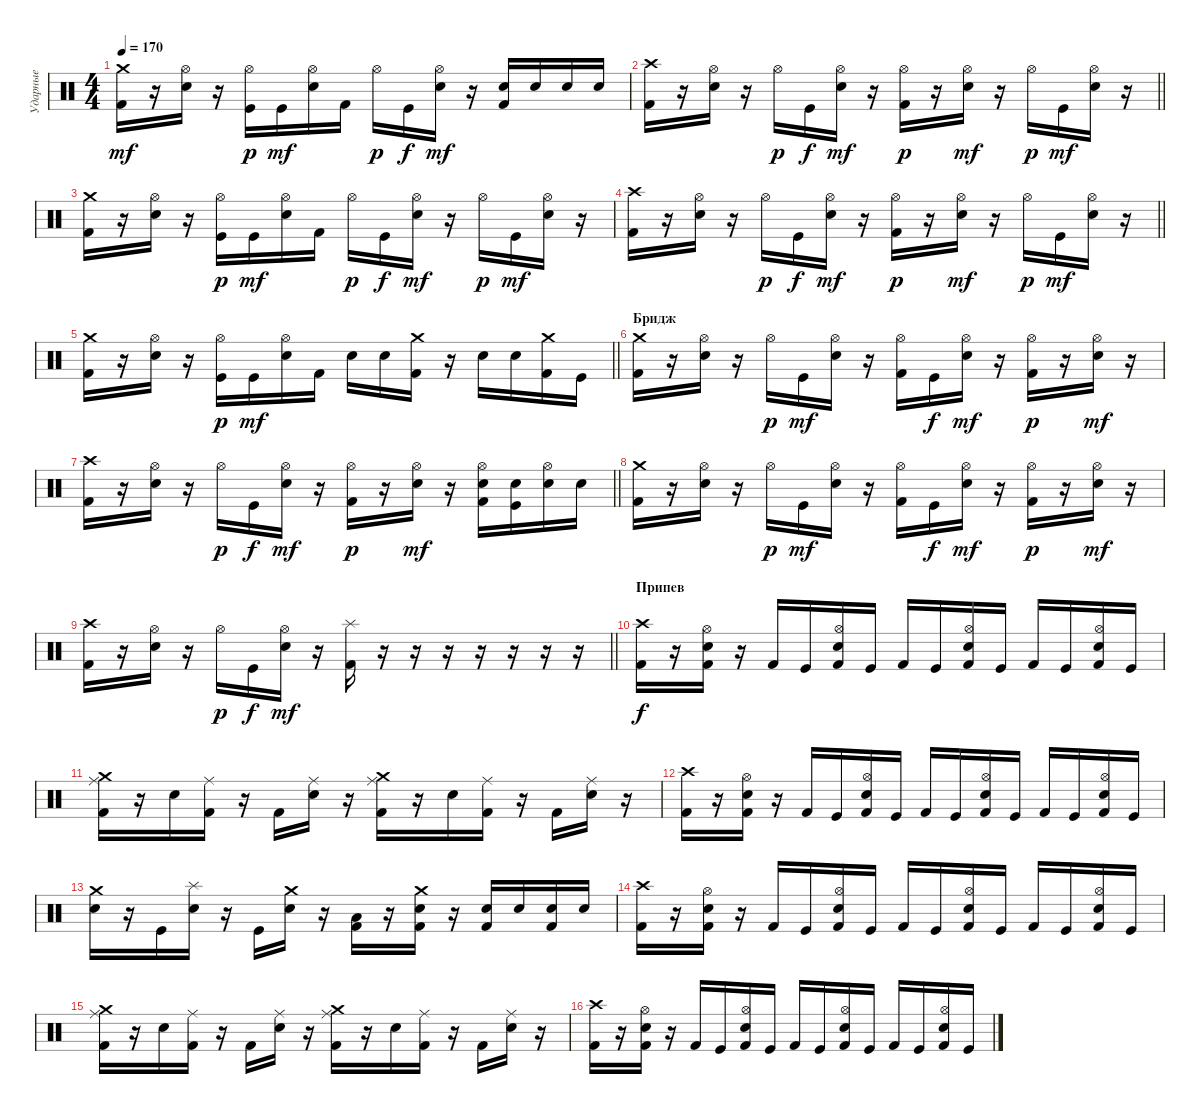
\track ("Ударные" "Ударные") {instrument percussion}
\staff {score}
\articulation defaults
\ts (4 4)
\tempo 170
\clef neutral
\ks c
("Crash medium (hit)" "Kick (hit) 2").16{dy mf} r.16 ("Hi-Hat (open)" "Electric Snare (hit)").16 r.16 ("Hi-Hat (open)" "Kick (hit)").16{dy p} "Kick (hit)".16{dy mf} ("Hi-Hat (open)" "Electric Snare (hit)").16 "Kick (hit) 2".16 "Hi-Hat (open)".16{dy p} "Kick (hit)".16{dy f} ("Hi-Hat (open)" "Electric Snare (hit)").16{dy mf} r.16 ("Electric Snare (hit)" "Kick (hit) 2").16 "Electric Snare (hit)".16 "Electric Snare (hit)".16 "Electric Snare (hit)".16 |
\barLineRight lightlight
("Crash high (hit)" "Kick (hit) 2").16 r.16 ("Hi-Hat (open)" "Electric Snare (hit)").16 r.16 "Hi-Hat (open)".16{dy p} "Kick (hit)".16{dy f} ("Hi-Hat (open)" "Electric Snare (hit)").16{dy mf} r.16 ("Hi-Hat (open)" "Kick (hit) 2").16{dy p} r.16 ("Hi-Hat (open)" "Electric Snare (hit)").16{dy mf} r.16 "Hi-Hat (open)".16{dy p} "Kick (hit)".16{dy mf} ("Hi-Hat (open)" "Electric Snare (hit)").16 r.16 |
("Crash medium (hit)" "Kick (hit) 2").16 r.16 ("Hi-Hat (open)" "Electric Snare (hit)").16 r.16 ("Hi-Hat (open)" "Kick (hit)").16{dy p} "Kick (hit)".16{dy mf} ("Hi-Hat (open)" "Electric Snare (hit)").16 "Kick (hit) 2".16 "Hi-Hat (open)".16{dy p} "Kick (hit)".16{dy f} ("Hi-Hat (open)" "Electric Snare (hit)").16{dy mf} r.16 "Hi-Hat (open)".16{dy p} "Kick (hit)".16{dy mf} ("Hi-Hat (open)" "Electric Snare (hit)").16 r.16 |
\barLineRight lightlight
("Crash high (hit)" "Kick (hit) 2").16 r.16 ("Hi-Hat (open)" "Electric Snare (hit)").16 r.16 "Hi-Hat (open)".16{dy p} "Kick (hit)".16{dy f} ("Hi-Hat (open)" "Electric Snare (hit)").16{dy mf} r.16 ("Hi-Hat (open)" "Kick (hit) 2").16{dy p} r.16 ("Hi-Hat (open)" "Electric Snare (hit)").16{dy mf} r.16 "Hi-Hat (open)".16{dy p} "Kick (hit)".16{dy mf} ("Hi-Hat (open)" "Electric Snare (hit)").16 r.16 |
\barLineRight lightlight
("Crash medium (hit)" "Kick (hit) 2").16 r.16 ("Hi-Hat (open)" "Electric Snare (hit)").16 r.16 ("Hi-Hat (open)" "Kick (hit)").16{dy p} "Kick (hit)".16{dy mf} ("Hi-Hat (open)" "Electric Snare (hit)").16 "Kick (hit) 2".16 "Electric Snare (hit)".16 "Electric Snare (hit)".16 ("Crash medium (hit)" "Kick (hit) 2").16 r.16 "Electric Snare (hit)".16 "Electric Snare (hit)".16 ("Crash medium (hit)" "Kick (hit) 2").16 "Kick (hit)".16 |
\section ("" "Бридж")
("Crash medium (hit)" "Kick (hit) 2").16 r.16 ("Hi-Hat (open)" "Electric Snare (hit)").16 r.16 "Hi-Hat (open)".16{dy p} "Kick (hit)".16{dy mf} ("Hi-Hat (open)" "Electric Snare (hit)").16 r.16 ("Hi-Hat (open)" "Kick (hit) 2").16 "Kick (hit)".16{dy f} ("Hi-Hat (open)" "Electric Snare (hit)").16{dy mf} r.16 ("Hi-Hat (open)" "Kick (hit) 2").16{dy p} r.16 ("Hi-Hat (open)" "Electric Snare (hit)").16{dy mf} r.16 |
\barLineRight lightlight
("Crash high (hit)" "Kick (hit) 2").16 r.16 ("Hi-Hat (open)" "Electric Snare (hit)").16 r.16 "Hi-Hat (open)".16{dy p} "Kick (hit)".16{dy f} ("Hi-Hat (open)" "Electric Snare (hit)").16{dy mf} r.16 ("Hi-Hat (open)" "Kick (hit) 2").16{dy p} r.16 ("Hi-Hat (open)" "Electric Snare (hit)").16{dy mf} r.16 ("Hi-Hat (open)" "Electric Snare (hit)" "Kick (hit) 2").16 ("Electric Snare (hit)" "Kick (hit)").16 ("Hi-Hat (open)" "Electric Snare (hit)").16 "Electric Snare (hit)".16 |
("Crash medium (hit)" "Kick (hit) 2").16 r.16 ("Hi-Hat (open)" "Electric Snare (hit)").16 r.16 "Hi-Hat (open)".16{dy p} "Kick (hit)".16{dy mf} ("Hi-Hat (open)" "Electric Snare (hit)").16 r.16 ("Hi-Hat (open)" "Kick (hit) 2").16 "Kick (hit)".16{dy f} ("Hi-Hat (open)" "Electric Snare (hit)").16{dy mf} r.16 ("Hi-Hat (open)" "Kick (hit) 2").16{dy p} r.16 ("Hi-Hat (open)" "Electric Snare (hit)").16{dy mf} r.16 |
\barLineRight lightlight
("Crash high (hit)" "Kick (hit) 2").16 r.16 ("Hi-Hat (open)" "Electric Snare (hit)").16 r.16 "Hi-Hat (open)".16{dy p} "Kick (hit)".16{dy f} ("Hi-Hat (open)" "Electric Snare (hit)").16{dy mf} r.16 ("Splash (hit)" "Kick (hit) 2").16 r.16 r.16 r.16 r.16 r.16 r.16 r.16 |
\section ("" "Припев")
("Crash high (hit)" "Kick (hit) 2").16{dy f} r.16 ("Hi-Hat (open)" "Electric Snare (hit)" "Kick (hit) 2").16 r.16 "Kick (hit) 2".16 "Kick (hit)".16 ("Hi-Hat (open)" "Electric Snare (hit)" "Kick (hit) 2").16 "Kick (hit)".16 "Kick (hit) 2".16 "Kick (hit)".16 ("Hi-Hat (open)" "Electric Snare (hit)" "Kick (hit) 2").16 "Kick (hit)".16 "Kick (hit) 2".16 "Kick (hit)".16 ("Hi-Hat (open)" "Electric Snare (hit)" "Kick (hit) 2").16 "Kick (hit)".16 |
("Crash medium (hit)" "Ride (middle)" "Kick (hit) 2").16 r.16 "Electric Snare (hit)".16 ("Ride (middle)" "Kick (hit) 2").16 r.16 "Kick (hit) 2".16 ("Ride (middle)" "Electric Snare (hit)").16 r.16 ("Crash medium (hit)" "Ride (middle)" "Kick (hit) 2").16 r.16 "Electric Snare (hit)".16 ("Ride (middle)" "Kick (hit) 2").16 r.16 "Kick (hit) 2".16 ("Ride (middle)" "Electric Snare (hit)").16 r.16 |
("Crash high (hit)" "Kick (hit) 2").16 r.16 ("Hi-Hat (open)" "Electric Snare (hit)" "Kick (hit) 2").16 r.16 "Kick (hit) 2".16 "Kick (hit)".16 ("Hi-Hat (open)" "Electric Snare (hit)" "Kick (hit) 2").16 "Kick (hit)".16 "Kick (hit) 2".16 "Kick (hit)".16 ("Hi-Hat (open)" "Electric Snare (hit)" "Kick (hit) 2").16 "Kick (hit)".16 "Kick (hit) 2".16 "Kick (hit)".16 ("Hi-Hat (open)" "Electric Snare (hit)" "Kick (hit) 2").16 "Kick (hit)".16 |
("Crash medium (hit)" "Electric Snare (hit)").16 r.16 "Kick (hit)".16 ("Splash (hit)" "Electric Snare (hit)").16 r.16 "Kick (hit)".16 ("Crash medium (hit)" "Electric Snare (hit)").16 r.16 ("Low Tom (hit)" "Kick (hit) 2").16 r.16 ("Crash medium (hit)" "Electric Snare (hit)" "Kick (hit) 2").16 r.16 ("Electric Snare (hit)" "Kick (hit) 2").16 "Electric Snare (hit)".16 ("Electric Snare (hit)" "Kick (hit) 2").16 "Electric Snare (hit)".16 |
("Crash high (hit)" "Kick (hit) 2").16 r.16 ("Hi-Hat (open)" "Electric Snare (hit)" "Kick (hit) 2").16 r.16 "Kick (hit) 2".16 "Kick (hit)".16 ("Hi-Hat (open)" "Electric Snare (hit)" "Kick (hit) 2").16 "Kick (hit)".16 "Kick (hit) 2".16 "Kick (hit)".16 ("Hi-Hat (open)" "Electric Snare (hit)" "Kick (hit) 2").16 "Kick (hit)".16 "Kick (hit) 2".16 "Kick (hit)".16 ("Hi-Hat (open)" "Electric Snare (hit)" "Kick (hit) 2").16 "Kick (hit)".16 |
("Crash medium (hit)" "Ride (middle)" "Kick (hit) 2").16 r.16 "Electric Snare (hit)".16 ("Ride (middle)" "Kick (hit) 2").16 r.16 "Kick (hit) 2".16 ("Ride (middle)" "Electric Snare (hit)").16 r.16 ("Crash medium (hit)" "Ride (middle)" "Kick (hit) 2").16 r.16 "Electric Snare (hit)".16 ("Ride (middle)" "Kick (hit) 2").16 r.16 "Kick (hit) 2".16 ("Ride (middle)" "Electric Snare (hit)").16 r.16 |
("Crash high (hit)" "Kick (hit) 2").16 r.16 ("Hi-Hat (open)" "Electric Snare (hit)" "Kick (hit) 2").16 r.16 "Kick (hit) 2".16 "Kick (hit)".16 ("Hi-Hat (open)" "Electric Snare (hit)" "Kick (hit) 2").16 "Kick (hit)".16 "Kick (hit) 2".16 "Kick (hit)".16 ("Hi-Hat (open)" "Electric Snare (hit)" "Kick (hit) 2").16 "Kick (hit)".16 "Kick (hit) 2".16 "Kick (hit)".16 ("Hi-Hat (open)" "Electric Snare (hit)" "Kick (hit) 2").16 "Kick (hit)".16
